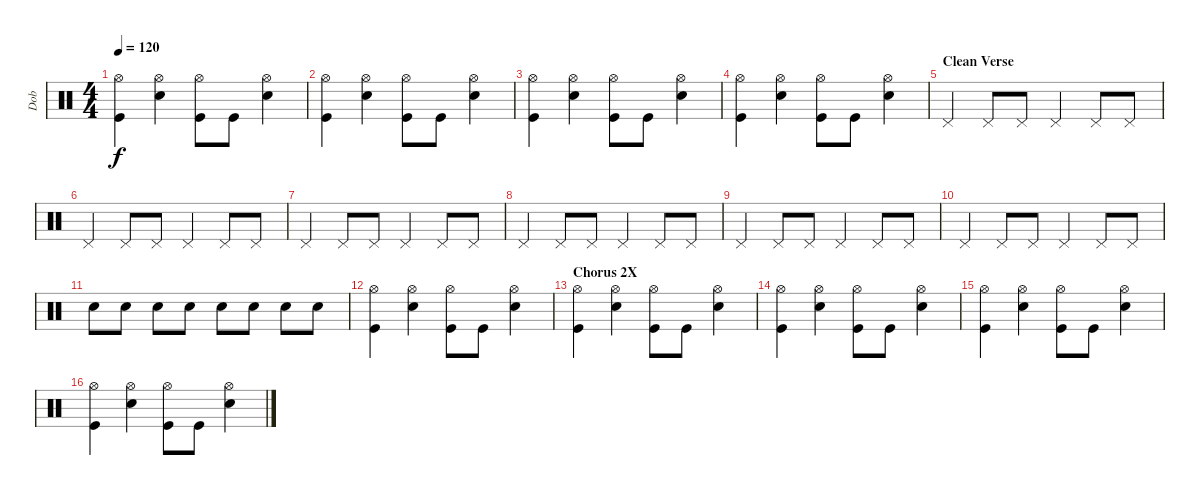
\track ("Dob" "Dob") {instrument percussion}
\staff {score}
\articulation defaults
\ts (4 4)
\tempo 120
\clef neutral
\ks c
("Hi-Hat (open)" "Kick (hit)").4{dy f} ("Hi-Hat (open)" "Snare (hit) 2").4 ("Hi-Hat (open)" "Kick (hit)").8 "Kick (hit)".8 ("Hi-Hat (open)" "Snare (hit) 2").4 |
("Hi-Hat (open)" "Kick (hit)").4 ("Hi-Hat (open)" "Snare (hit) 2").4 ("Hi-Hat (open)" "Kick (hit)").8 "Kick (hit)".8 ("Hi-Hat (open)" "Snare (hit) 2").4 |
("Hi-Hat (open)" "Kick (hit)").4 ("Hi-Hat (open)" "Snare (hit) 2").4 ("Hi-Hat (open)" "Kick (hit)").8 "Kick (hit)".8 ("Hi-Hat (open)" "Snare (hit) 2").4 |
("Hi-Hat (open)" "Kick (hit)").4 ("Hi-Hat (open)" "Snare (hit) 2").4 ("Hi-Hat (open)" "Kick (hit)").8 "Kick (hit)".8 ("Hi-Hat (open)" "Snare (hit) 2").4 |
\section ("" "Clean Verse")
"Pedal Hi-Hat (hit)".4 "Pedal Hi-Hat (hit)".8 "Pedal Hi-Hat (hit)".8 "Pedal Hi-Hat (hit)".4 "Pedal Hi-Hat (hit)".8 "Pedal Hi-Hat (hit)".8 |
"Pedal Hi-Hat (hit)".4 "Pedal Hi-Hat (hit)".8 "Pedal Hi-Hat (hit)".8 "Pedal Hi-Hat (hit)".4 "Pedal Hi-Hat (hit)".8 "Pedal Hi-Hat (hit)".8 |
"Pedal Hi-Hat (hit)".4 "Pedal Hi-Hat (hit)".8 "Pedal Hi-Hat (hit)".8 "Pedal Hi-Hat (hit)".4 "Pedal Hi-Hat (hit)".8 "Pedal Hi-Hat (hit)".8 |
"Pedal Hi-Hat (hit)".4 "Pedal Hi-Hat (hit)".8 "Pedal Hi-Hat (hit)".8 "Pedal Hi-Hat (hit)".4 "Pedal Hi-Hat (hit)".8 "Pedal Hi-Hat (hit)".8 |
"Pedal Hi-Hat (hit)".4 "Pedal Hi-Hat (hit)".8 "Pedal Hi-Hat (hit)".8 "Pedal Hi-Hat (hit)".4 "Pedal Hi-Hat (hit)".8 "Pedal Hi-Hat (hit)".8 |
"Pedal Hi-Hat (hit)".4 "Pedal Hi-Hat (hit)".8 "Pedal Hi-Hat (hit)".8 "Pedal Hi-Hat (hit)".4 "Pedal Hi-Hat (hit)".8 "Pedal Hi-Hat (hit)".8 |
"Snare (hit) 2".8 "Snare (hit) 2".8 "Snare (hit) 2".8 "Snare (hit) 2".8 "Snare (hit) 2".8 "Snare (hit) 2".8 "Snare (hit) 2".8 "Snare (hit) 2".8 |
("Hi-Hat (open)" "Kick (hit)").4 ("Hi-Hat (open)" "Snare (hit) 2").4 ("Hi-Hat (open)" "Kick (hit)").8 "Kick (hit)".8 ("Hi-Hat (open)" "Snare (hit) 2").4 |
\section ("" "Chorus 2X")
("Hi-Hat (open)" "Kick (hit)").4 ("Hi-Hat (open)" "Snare (hit) 2").4 ("Hi-Hat (open)" "Kick (hit)").8 "Kick (hit)".8 ("Hi-Hat (open)" "Snare (hit) 2").4 |
("Hi-Hat (open)" "Kick (hit)").4 ("Hi-Hat (open)" "Snare (hit) 2").4 ("Hi-Hat (open)" "Kick (hit)").8 "Kick (hit)".8 ("Hi-Hat (open)" "Snare (hit) 2").4 |
("Hi-Hat (open)" "Kick (hit)").4 ("Hi-Hat (open)" "Snare (hit) 2").4 ("Hi-Hat (open)" "Kick (hit)").8 "Kick (hit)".8 ("Hi-Hat (open)" "Snare (hit) 2").4 |
("Hi-Hat (open)" "Kick (hit)").4 ("Hi-Hat (open)" "Snare (hit) 2").4 ("Hi-Hat (open)" "Kick (hit)").8 "Kick (hit)".8 ("Hi-Hat (open)" "Snare (hit) 2").4
